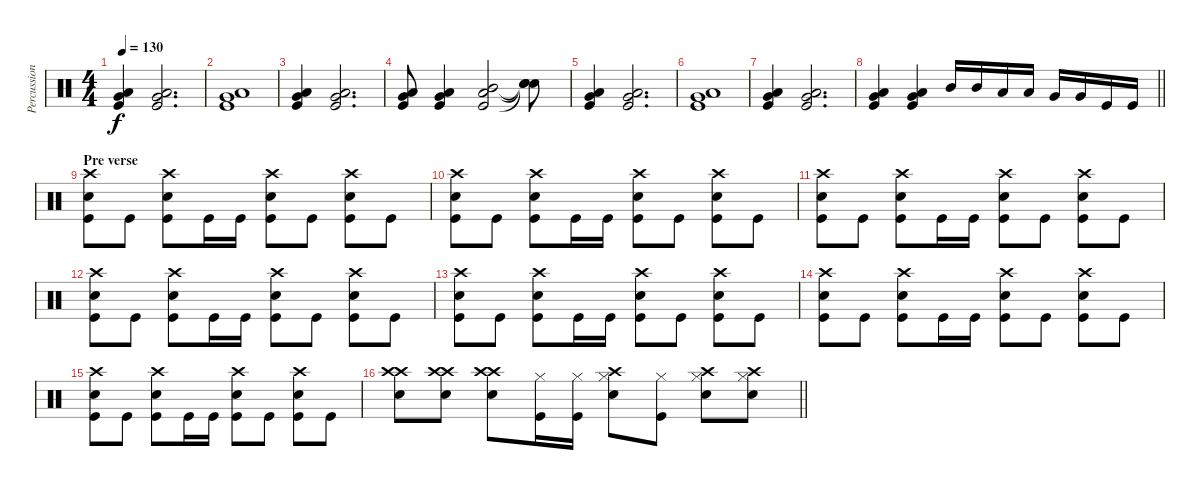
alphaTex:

\track ("Percussions" "Percussion") {instrument percussion}
\staff {score}
\articulation defaults
\ts (4 4)
\tempo 130
\clef neutral
\ks c
("Low Tom (hit)" "Very Low Tom (hit)" "Kick (hit)").4{dy f} ("Low Tom (hit)" "Very Low Tom (hit)" "Kick (hit)").2{d} |
("Low Tom (hit)" "Very Low Tom (hit)" "Kick (hit)").1 |
("Low Tom (hit)" "Very Low Tom (hit)" "Kick (hit)").4 ("Low Tom (hit)" "Very Low Tom (hit)" "Kick (hit)").2{d} |
("Low Tom (hit)" "Very Low Tom (hit)" "Kick (hit)").8 ("Low Tom (hit)" "Very Low Tom (hit)" "Kick (hit)").4 ("Mid Tom (hit)" "Low Tom (hit)" "Kick (hit)").2 ("Snare (hit)"{t} "Snare (hit)"{t} "Snare (hit)"{t}).8 |
("Low Tom (hit)" "Very Low Tom (hit)" "Kick (hit)").4 ("Low Tom (hit)" "Very Low Tom (hit)" "Kick (hit)").2{d} |
("Low Tom (hit)" "Very Low Tom (hit)" "Kick (hit)").1 |
("Low Tom (hit)" "Very Low Tom (hit)" "Kick (hit)").4 ("Low Tom (hit)" "Very Low Tom (hit)" "Kick (hit)").2{d} |
\barLineRight lightlight
("Low Tom (hit)" "Very Low Tom (hit)" "Kick (hit)").4 ("Low Tom (hit)" "Very Low Tom (hit)" "Kick (hit)").4 "Mid Tom (hit)".16 "Mid Tom (hit)".16 "Low Tom (hit)".16 "Low Tom (hit)".16 "Very Low Tom (hit)".16 "Very Low Tom (hit)".16 "Kick (hit)".16 "Kick (hit)".16 |
\section ("" "Pre verse")
("Crash high (hit)" "Kick (hit)" "Snare (hit) 2").8 "Kick (hit)".8 ("Crash high (hit)" "Kick (hit)" "Snare (hit) 2").8 "Kick (hit)".16 "Kick (hit)".16 ("Crash high (hit)" "Kick (hit)" "Snare (hit) 2").8 "Kick (hit)".8 ("Crash high (hit)" "Kick (hit)" "Snare (hit) 2").8 "Kick (hit)".8 |
("Crash high (hit)" "Kick (hit)" "Snare (hit) 2").8 "Kick (hit)".8 ("Crash high (hit)" "Kick (hit)" "Snare (hit) 2").8 "Kick (hit)".16 "Kick (hit)".16 ("Crash high (hit)" "Kick (hit)" "Snare (hit) 2").8 "Kick (hit)".8 ("Crash high (hit)" "Kick (hit)" "Snare (hit) 2").8 "Kick (hit)".8 |
("Crash high (hit)" "Kick (hit)" "Snare (hit) 2").8 "Kick (hit)".8 ("Crash high (hit)" "Kick (hit)" "Snare (hit) 2").8 "Kick (hit)".16 "Kick (hit)".16 ("Crash high (hit)" "Kick (hit)" "Snare (hit) 2").8 "Kick (hit)".8 ("Crash high (hit)" "Kick (hit)" "Snare (hit) 2").8 "Kick (hit)".8 |
("Crash high (hit)" "Kick (hit)" "Snare (hit) 2").8 "Kick (hit)".8 ("Crash high (hit)" "Kick (hit)" "Snare (hit) 2").8 "Kick (hit)".16 "Kick (hit)".16 ("Crash high (hit)" "Kick (hit)" "Snare (hit) 2").8 "Kick (hit)".8 ("Crash high (hit)" "Kick (hit)" "Snare (hit) 2").8 "Kick (hit)".8 |
("Crash high (hit)" "Kick (hit)" "Snare (hit) 2").8 "Kick (hit)".8 ("Crash high (hit)" "Kick (hit)" "Snare (hit) 2").8 "Kick (hit)".16 "Kick (hit)".16 ("Crash high (hit)" "Kick (hit)" "Snare (hit) 2").8 "Kick (hit)".8 ("Crash high (hit)" "Kick (hit)" "Snare (hit) 2").8 "Kick (hit)".8 |
("Crash high (hit)" "Kick (hit)" "Snare (hit) 2").8 "Kick (hit)".8 ("Crash high (hit)" "Kick (hit)" "Snare (hit) 2").8 "Kick (hit)".16 "Kick (hit)".16 ("Crash high (hit)" "Kick (hit)" "Snare (hit) 2").8 "Kick (hit)".8 ("Crash high (hit)" "Kick (hit)" "Snare (hit) 2").8 "Kick (hit)".8 |
("Crash high (hit)" "Kick (hit)" "Snare (hit) 2").8 "Kick (hit)".8 ("Crash high (hit)" "Kick (hit)" "Snare (hit) 2").8 "Kick (hit)".16 "Kick (hit)".16 ("Crash high (hit)" "Kick (hit)" "Snare (hit) 2").8 "Kick (hit)".8 ("Crash high (hit)" "Kick (hit)" "Snare (hit) 2").8 "Kick (hit)".8 |
\barLineRight lightlight
("Crash high (hit)" "Snare (hit) 2" "Crash high (hit)").8 ("Crash high (hit)" "Snare (hit) 2" "Crash high (hit)").8 ("Crash high (hit)" "Snare (hit) 2" "Crash high (hit)").8 ("Kick (hit)" "Hi-Hat (closed)").16 ("Kick (hit)" "Hi-Hat (closed)").16 ("Hi-Hat (closed)" "Snare (hit) 2" "Crash high (hit)").8 ("Kick (hit)" "Hi-Hat (closed)").8 ("Hi-Hat (closed)" "Snare (hit) 2" "Crash high (hit)").8 ("Hi-Hat (closed)" "Snare (hit) 2" "Crash high (hit)").8
